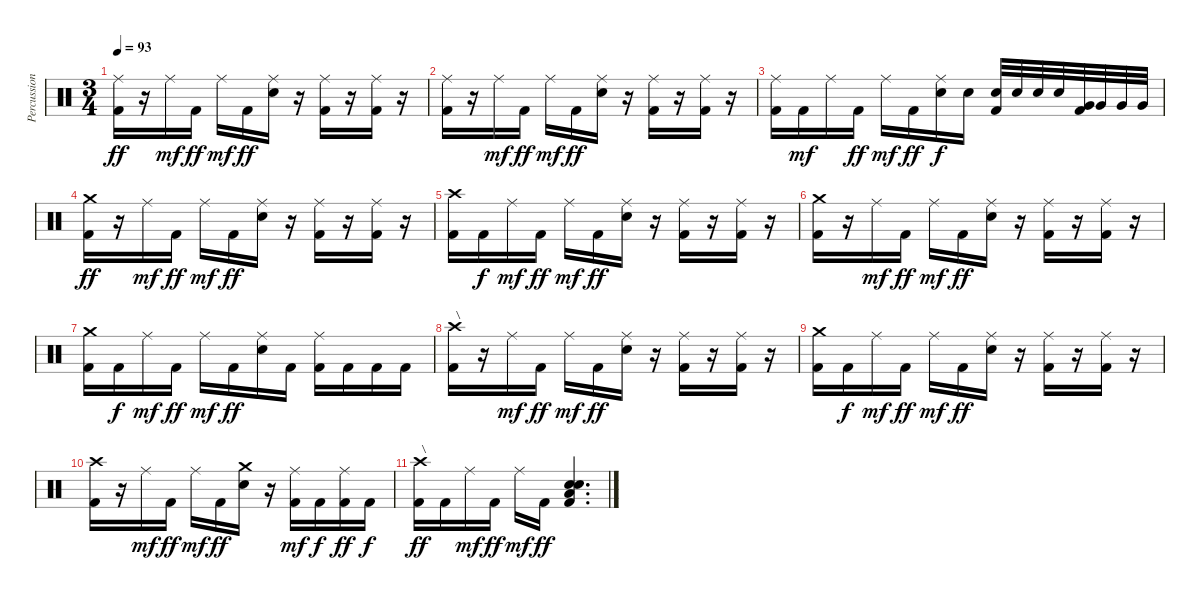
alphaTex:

\track ("Percussion" "Percussion") {instrument percussion}
\staff {score}
\articulation defaults
\ts (3 4)
\tempo 93
\clef neutral
\ks c
("Ride (middle)" "Kick (hit) 2").16{dy ff} r.16 "Ride (middle)".16{dy mf} "Kick (hit) 2".16{dy ff} "Ride (middle)".16{dy mf} "Kick (hit) 2".16{dy ff} ("Ride (middle)" "Electric Snare (hit)").16 r.16 ("Ride (middle)" "Kick (hit) 2").16 r.16 ("Ride (middle)" "Kick (hit) 2").16 r.16 |
("Ride (middle)" "Kick (hit) 2").16 r.16 "Ride (middle)".16{dy mf} "Kick (hit) 2".16{dy ff} "Ride (middle)".16{dy mf} "Kick (hit) 2".16{dy ff} ("Ride (middle)" "Electric Snare (hit)").16 r.16 ("Ride (middle)" "Kick (hit) 2").16 r.16 ("Ride (middle)" "Kick (hit) 2").16 r.16 |
("Ride (middle)" "Kick (hit) 2").16 "Kick (hit) 2".16{dy mf} "Ride (middle)".16 "Kick (hit) 2".16{dy ff} "Ride (middle)".16{dy mf} "Kick (hit) 2".16{dy ff} ("Ride (middle)" "Electric Snare (hit)").16{dy f} "Electric Snare (hit)".16 ("Electric Snare (hit)" "Kick (hit) 2").32 "Electric Snare (hit)".32 "Electric Snare (hit)".32 "Electric Snare (hit)".32 ("Very Low Tom (hit)" "Kick (hit) 2").32 "Very Low Tom (hit)".32 "Very Low Tom (hit)".32 "Very Low Tom (hit)".32 |
("Crash medium (hit)" "Kick (hit) 2").16{dy ff} r.16 "Ride (middle)".16{dy mf} "Kick (hit) 2".16{dy ff} "Ride (middle)".16{dy mf} "Kick (hit) 2".16{dy ff} ("Ride (middle)" "Electric Snare (hit)").16 r.16 ("Ride (middle)" "Kick (hit) 2").16 r.16 ("Ride (middle)" "Kick (hit) 2").16 r.16 |
("Crash high (hit)" "Kick (hit) 2").16 "Kick (hit) 2".16{dy f} "Ride (middle)".16{dy mf} "Kick (hit) 2".16{dy ff} "Ride (middle)".16{dy mf} "Kick (hit) 2".16{dy ff} ("Ride (middle)" "Electric Snare (hit)").16 r.16 ("Ride (middle)" "Kick (hit) 2").16 r.16 ("Ride (middle)" "Kick (hit) 2").16 r.16 |
("Crash medium (hit)" "Kick (hit) 2").16 r.16 "Ride (middle)".16{dy mf} "Kick (hit) 2".16{dy ff} "Ride (middle)".16{dy mf} "Kick (hit) 2".16{dy ff} ("Ride (middle)" "Electric Snare (hit)").16 r.16 ("Ride (middle)" "Kick (hit) 2").16 r.16 ("Ride (middle)" "Kick (hit) 2").16 r.16 |
("Crash medium (hit)" "Kick (hit) 2").16 "Kick (hit) 2".16{dy f} "Ride (middle)".16{dy mf} "Kick (hit) 2".16{dy ff} "Ride (middle)".16{dy mf} "Kick (hit) 2".16{dy ff} ("Ride (middle)" "Electric Snare (hit)").16 "Kick (hit) 2".16 ("Ride (middle)" "Kick (hit) 2").16 "Kick (hit) 2".16 "Kick (hit) 2".16 "Kick (hit) 2".16 |
("Crash high (hit)" "Kick (hit) 2").16{txt "\\"} r.16 "Ride (middle)".16{dy mf} "Kick (hit) 2".16{dy ff} "Ride (middle)".16{dy mf} "Kick (hit) 2".16{dy ff} ("Ride (middle)" "Electric Snare (hit)").16 r.16 ("Ride (middle)" "Kick (hit) 2").16 r.16 ("Ride (middle)" "Kick (hit) 2").16 r.16 |
("Crash medium (hit)" "Kick (hit) 2").16 "Kick (hit) 2".16{dy f} "Ride (middle)".16{dy mf} "Kick (hit) 2".16{dy ff} "Ride (middle)".16{dy mf} "Kick (hit) 2".16{dy ff} ("Ride (middle)" "Electric Snare (hit)").16 r.16 ("Ride (middle)" "Kick (hit) 2").16 r.16 ("Ride (middle)" "Kick (hit) 2").16 r.16 |
("Crash high (hit)" "Kick (hit) 2").16 r.16 "Ride (middle)".16{dy mf} "Kick (hit) 2".16{dy ff} "Ride (middle)".16{dy mf} "Kick (hit) 2".16{dy ff} ("Crash medium (hit)" "Electric Snare (hit)").16 r.16 ("Ride (middle)" "Kick (hit) 2").16{dy mf} "Kick (hit) 2".16{dy f} ("Ride (middle)" "Kick (hit) 2").16{dy ff} "Kick (hit) 2".16{dy f} |
("Crash high (hit)" "Kick (hit) 2").16{txt "\\" dy ff} "Kick (hit) 2".16 "Ride (middle)".16{dy mf} "Kick (hit) 2".16{dy ff} "Ride (middle)".16{dy mf} "Kick (hit) 2".16{dy ff} ("Low Floor Tom (hit)" "Snare (hit) 2" "Electric Snare (hit)" "Kick (hit) 2").4{d}
